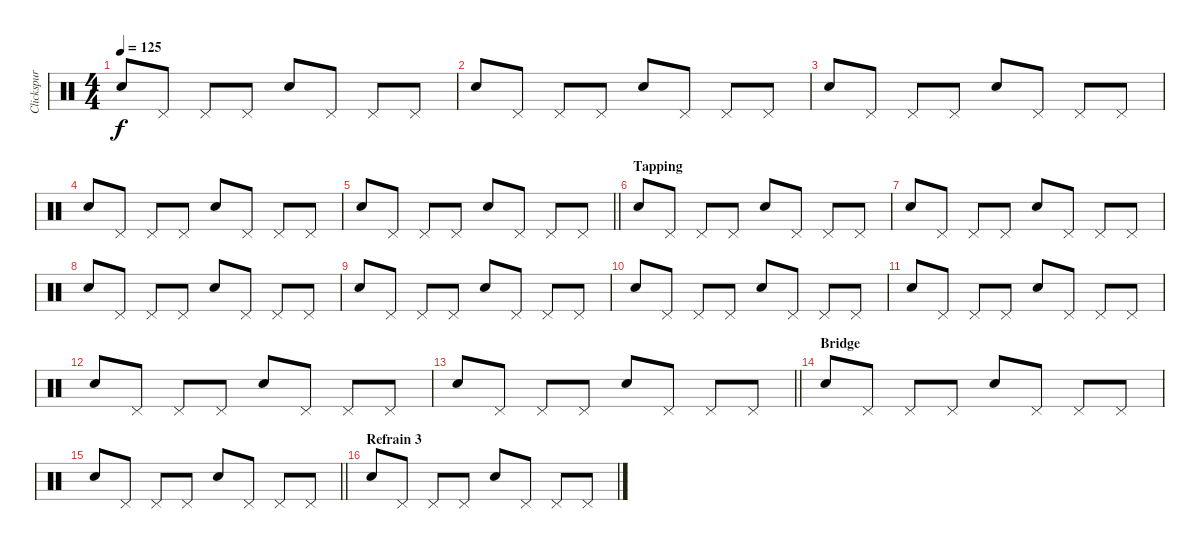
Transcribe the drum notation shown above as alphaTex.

\track ("Clickspur" "Clickspur") {instrument percussion}
\staff {score}
\articulation defaults
\ts (4 4)
\tempo 125
\clef neutral
\ks c "Electric Snare (hit)".8{dy f} "Pedal Hi-Hat (hit)".8 "Pedal Hi-Hat (hit)".8 "Pedal Hi-Hat (hit)".8 "Electric Snare (hit)".8 "Pedal Hi-Hat (hit)".8 "Pedal Hi-Hat (hit)".8 "Pedal Hi-Hat (hit)".8
|
"Electric Snare (hit)".8 "Pedal Hi-Hat (hit)".8 "Pedal Hi-Hat (hit)".8 "Pedal Hi-Hat (hit)".8 "Electric Snare (hit)".8 "Pedal Hi-Hat (hit)".8 "Pedal Hi-Hat (hit)".8 "Pedal Hi-Hat (hit)".8 |
"Electric Snare (hit)".8 "Pedal Hi-Hat (hit)".8 "Pedal Hi-Hat (hit)".8 "Pedal Hi-Hat (hit)".8 "Electric Snare (hit)".8 "Pedal Hi-Hat (hit)".8 "Pedal Hi-Hat (hit)".8 "Pedal Hi-Hat (hit)".8 |
"Electric Snare (hit)".8 "Pedal Hi-Hat (hit)".8 "Pedal Hi-Hat (hit)".8 "Pedal Hi-Hat (hit)".8 "Electric Snare (hit)".8 "Pedal Hi-Hat (hit)".8 "Pedal Hi-Hat (hit)".8 "Pedal Hi-Hat (hit)".8 |
\barLineRight lightlight "Electric Snare (hit)".8 "Pedal Hi-Hat (hit)".8 "Pedal Hi-Hat (hit)".8 "Pedal Hi-Hat (hit)".8 "Electric Snare (hit)".8 "Pedal Hi-Hat (hit)".8 "Pedal Hi-Hat (hit)".8 "Pedal Hi-Hat (hit)".8
|
\section ("" "Tapping")
"Electric Snare (hit)".8 "Pedal Hi-Hat (hit)".8 "Pedal Hi-Hat (hit)".8 "Pedal Hi-Hat (hit)".8 "Electric Snare (hit)".8 "Pedal Hi-Hat (hit)".8 "Pedal Hi-Hat (hit)".8 "Pedal Hi-Hat (hit)".8 |
"Electric Snare (hit)".8 "Pedal Hi-Hat (hit)".8 "Pedal Hi-Hat (hit)".8 "Pedal Hi-Hat (hit)".8 "Electric Snare (hit)".8 "Pedal Hi-Hat (hit)".8 "Pedal Hi-Hat (hit)".8 "Pedal Hi-Hat (hit)".8 |
"Electric Snare (hit)".8 "Pedal Hi-Hat (hit)".8 "Pedal Hi-Hat (hit)".8 "Pedal Hi-Hat (hit)".8 "Electric Snare (hit)".8 "Pedal Hi-Hat (hit)".8 "Pedal Hi-Hat (hit)".8 "Pedal Hi-Hat (hit)".8 |
"Electric Snare (hit)".8 "Pedal Hi-Hat (hit)".8 "Pedal Hi-Hat (hit)".8 "Pedal Hi-Hat (hit)".8 "Electric Snare (hit)".8 "Pedal Hi-Hat (hit)".8 "Pedal Hi-Hat (hit)".8 "Pedal Hi-Hat (hit)".8 |
"Electric Snare (hit)".8 "Pedal Hi-Hat (hit)".8 "Pedal Hi-Hat (hit)".8 "Pedal Hi-Hat (hit)".8 "Electric Snare (hit)".8 "Pedal Hi-Hat (hit)".8 "Pedal Hi-Hat (hit)".8 "Pedal Hi-Hat (hit)".8 |
"Electric Snare (hit)".8 "Pedal Hi-Hat (hit)".8 "Pedal Hi-Hat (hit)".8 "Pedal Hi-Hat (hit)".8 "Electric Snare (hit)".8 "Pedal Hi-Hat (hit)".8 "Pedal Hi-Hat (hit)".8 "Pedal Hi-Hat (hit)".8 |
"Electric Snare (hit)".8 "Pedal Hi-Hat (hit)".8 "Pedal Hi-Hat (hit)".8 "Pedal Hi-Hat (hit)".8 "Electric Snare (hit)".8 "Pedal Hi-Hat (hit)".8 "Pedal Hi-Hat (hit)".8 "Pedal Hi-Hat (hit)".8 |
\barLineRight lightlight "Electric Snare (hit)".8 "Pedal Hi-Hat (hit)".8 "Pedal Hi-Hat (hit)".8 "Pedal Hi-Hat (hit)".8 "Electric Snare (hit)".8 "Pedal Hi-Hat (hit)".8 "Pedal Hi-Hat (hit)".8 "Pedal Hi-Hat (hit)".8
|
\section ("" "Bridge")
"Electric Snare (hit)".8 "Pedal Hi-Hat (hit)".8 "Pedal Hi-Hat (hit)".8 "Pedal Hi-Hat (hit)".8 "Electric Snare (hit)".8 "Pedal Hi-Hat (hit)".8 "Pedal Hi-Hat (hit)".8 "Pedal Hi-Hat (hit)".8 |
\barLineRight lightlight "Electric Snare (hit)".8 "Pedal Hi-Hat (hit)".8 "Pedal Hi-Hat (hit)".8 "Pedal Hi-Hat (hit)".8 "Electric Snare (hit)".8 "Pedal Hi-Hat (hit)".8 "Pedal Hi-Hat (hit)".8 "Pedal Hi-Hat (hit)".8
|
\section ("" "Refrain 3")
"Electric Snare (hit)".8 "Pedal Hi-Hat (hit)".8 "Pedal Hi-Hat (hit)".8 "Pedal Hi-Hat (hit)".8 "Electric Snare (hit)".8 "Pedal Hi-Hat (hit)".8 "Pedal Hi-Hat (hit)".8 "Pedal Hi-Hat (hit)".8
